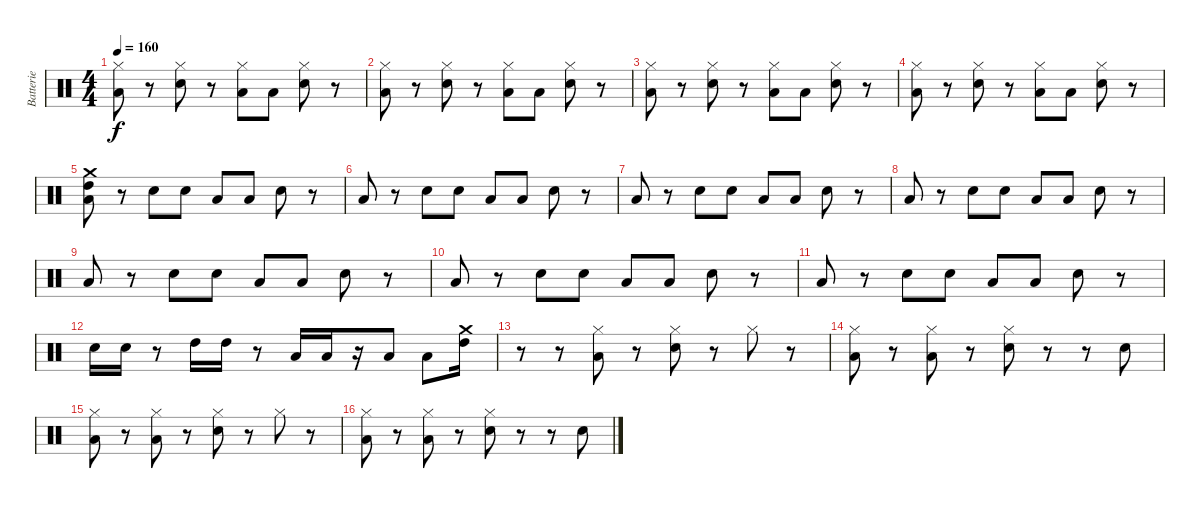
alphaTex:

\track ("Batterie" "Batterie") {instrument percussion}
\staff {score}
\articulation defaults
\ts (4 4)
\tempo 160
\clef neutral
\ks c
("Hi-Hat (closed)" "Low Floor Tom (hit)").8{dy f} r.8 ("Hi-Hat (closed)" "Electric Snare (hit)").8 r.8 ("Hi-Hat (closed)" "Low Floor Tom (hit)").8 "Low Floor Tom (hit)".8 ("Hi-Hat (closed)" "Electric Snare (hit)").8 r.8 |
("Hi-Hat (closed)" "Low Floor Tom (hit)").8 r.8 ("Hi-Hat (closed)" "Electric Snare (hit)").8 r.8 ("Hi-Hat (closed)" "Low Floor Tom (hit)").8 "Low Floor Tom (hit)".8 ("Hi-Hat (closed)" "Electric Snare (hit)").8 r.8 |
("Hi-Hat (closed)" "Low Floor Tom (hit)").8 r.8 ("Hi-Hat (closed)" "Electric Snare (hit)").8 r.8 ("Hi-Hat (closed)" "Low Floor Tom (hit)").8 "Low Floor Tom (hit)".8 ("Hi-Hat (closed)" "Electric Snare (hit)").8 r.8 |
("Hi-Hat (closed)" "Low Floor Tom (hit)").8 r.8 ("Hi-Hat (closed)" "Electric Snare (hit)").8 r.8 ("Hi-Hat (closed)" "Low Floor Tom (hit)").8 "Low Floor Tom (hit)".8 ("Hi-Hat (closed)" "Electric Snare (hit)").8 r.8 |
("Low Floor Tom (hit)" "Crash medium (hit)" "High Tom (hit)").8 r.8 "Electric Snare (hit)".8 "Electric Snare (hit)".8 "Low Floor Tom (hit)".8 "Low Floor Tom (hit)".8 "Electric Snare (hit)".8 r.8 |
"Low Floor Tom (hit)".8 r.8 "Electric Snare (hit)".8 "Electric Snare (hit)".8 "Low Floor Tom (hit)".8 "Low Floor Tom (hit)".8 "Electric Snare (hit)".8 r.8 |
"Low Floor Tom (hit)".8 r.8 "Electric Snare (hit)".8 "Electric Snare (hit)".8 "Low Floor Tom (hit)".8 "Low Floor Tom (hit)".8 "Electric Snare (hit)".8 r.8 |
"Low Floor Tom (hit)".8 r.8 "Electric Snare (hit)".8 "Electric Snare (hit)".8 "Low Floor Tom (hit)".8 "Low Floor Tom (hit)".8 "Electric Snare (hit)".8 r.8 |
"Low Floor Tom (hit)".8 r.8 "Electric Snare (hit)".8 "Electric Snare (hit)".8 "Low Floor Tom (hit)".8 "Low Floor Tom (hit)".8 "Electric Snare (hit)".8 r.8 |
"Low Floor Tom (hit)".8 r.8 "Electric Snare (hit)".8 "Electric Snare (hit)".8 "Low Floor Tom (hit)".8 "Low Floor Tom (hit)".8 "Electric Snare (hit)".8 r.8 |
"Low Floor Tom (hit)".8 r.8 "Electric Snare (hit)".8 "Electric Snare (hit)".8 "Low Floor Tom (hit)".8 "Low Floor Tom (hit)".8 "Electric Snare (hit)".8 r.8 |
"Electric Snare (hit)".16 "Electric Snare (hit)".16 r.8 "High Tom (hit)".16 "High Tom (hit)".16 r.8 "Low Tom (hit)".16 "Low Tom (hit)".16 r.16 "Low Floor Tom (hit)".8 "Low Floor Tom (hit)".8 ("Crash medium (hit)" "High Tom (hit)").16 |
r.8 r.8 ("Hi-Hat (closed)" "Low Floor Tom (hit)").8 r.8 ("Hi-Hat (closed)" "Electric Snare (hit)").8 r.8 "Hi-Hat (closed)".8 r.8 |
("Hi-Hat (closed)" "Low Floor Tom (hit)").8 r.8 ("Hi-Hat (closed)" "Low Floor Tom (hit)").8 r.8 ("Hi-Hat (closed)" "Electric Snare (hit)").8 r.8 r.8 "Electric Snare (hit)".8 |
("Hi-Hat (closed)" "Low Floor Tom (hit)").8 r.8 ("Hi-Hat (closed)" "Low Floor Tom (hit)").8 r.8 ("Hi-Hat (closed)" "Electric Snare (hit)").8 r.8 "Hi-Hat (closed)".8 r.8 |
("Hi-Hat (closed)" "Low Floor Tom (hit)").8 r.8 ("Hi-Hat (closed)" "Low Floor Tom (hit)").8 r.8 ("Hi-Hat (closed)" "Electric Snare (hit)").8 r.8 r.8 "Electric Snare (hit)".8
